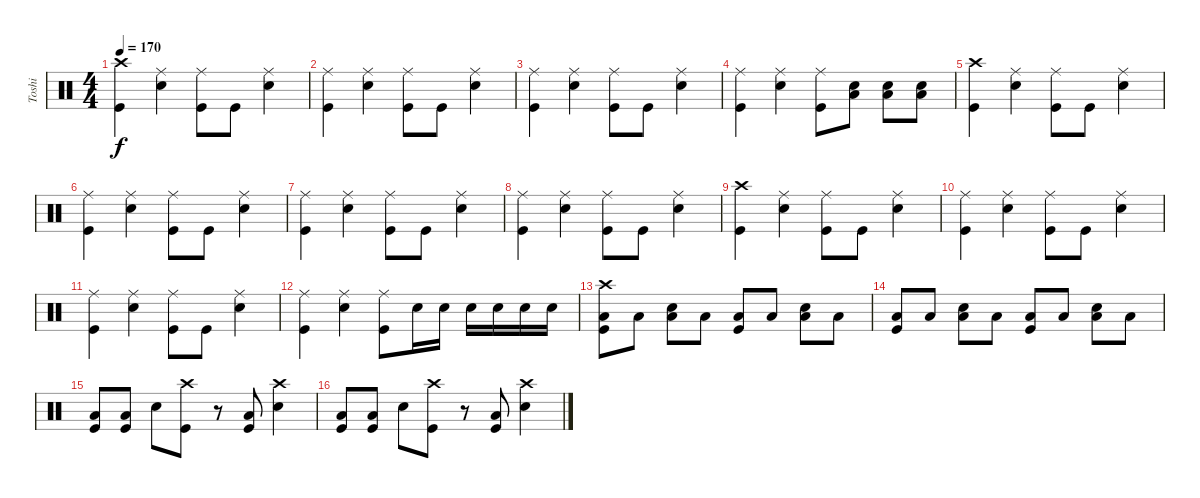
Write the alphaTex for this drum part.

\track ("Toshi" "Toshi") {instrument percussion}
\staff {score}
\articulation defaults
\ts (4 4)
\tempo 170
\clef neutral
\ks c
("Crash high (hit)" "Kick (hit)").4{dy f} ("Ride (middle)" "Snare (hit) 2").4 ("Ride (middle)" "Kick (hit)").8 "Kick (hit)".8 ("Ride (middle)" "Snare (hit) 2").4 |
("Ride (middle)" "Kick (hit)").4 ("Ride (middle)" "Snare (hit) 2").4 ("Ride (middle)" "Kick (hit)").8 "Kick (hit)".8 ("Ride (middle)" "Snare (hit) 2").4 |
("Ride (middle)" "Kick (hit)").4 ("Ride (middle)" "Snare (hit) 2").4 ("Ride (middle)" "Kick (hit)").8 "Kick (hit)".8 ("Ride (middle)" "Snare (hit) 2").4 |
("Ride (middle)" "Kick (hit)").4 ("Ride (middle)" "Snare (hit) 2").4 ("Ride (middle)" "Kick (hit)").8 ("Snare (hit) 2" "Low Tom (hit)").8 ("Snare (hit) 2" "Low Tom (hit)").8 ("Snare (hit) 2" "Low Tom (hit)").8 |
("Crash high (hit)" "Kick (hit)").4 ("Ride (middle)" "Snare (hit) 2").4 ("Ride (middle)" "Kick (hit)").8 "Kick (hit)".8 ("Ride (middle)" "Snare (hit) 2").4 |
("Ride (middle)" "Kick (hit)").4 ("Ride (middle)" "Snare (hit) 2").4 ("Ride (middle)" "Kick (hit)").8 "Kick (hit)".8 ("Ride (middle)" "Snare (hit) 2").4 |
("Ride (middle)" "Kick (hit)").4 ("Ride (middle)" "Snare (hit) 2").4 ("Ride (middle)" "Kick (hit)").8 "Kick (hit)".8 ("Ride (middle)" "Snare (hit) 2").4 |
("Ride (middle)" "Kick (hit)").4 ("Ride (middle)" "Snare (hit) 2").4 ("Ride (middle)" "Kick (hit)").8 "Kick (hit)".8 ("Ride (middle)" "Snare (hit) 2").4 |
("Crash high (hit)" "Kick (hit)").4 ("Ride (middle)" "Snare (hit) 2").4 ("Ride (middle)" "Kick (hit)").8 "Kick (hit)".8 ("Ride (middle)" "Snare (hit) 2").4 |
("Ride (middle)" "Kick (hit)").4 ("Ride (middle)" "Snare (hit) 2").4 ("Ride (middle)" "Kick (hit)").8 "Kick (hit)".8 ("Ride (middle)" "Snare (hit) 2").4 |
("Ride (middle)" "Kick (hit)").4 ("Ride (middle)" "Snare (hit) 2").4 ("Ride (middle)" "Kick (hit)").8 "Kick (hit)".8 ("Ride (middle)" "Snare (hit) 2").4 |
("Ride (middle)" "Kick (hit)").4 ("Ride (middle)" "Snare (hit) 2").4 ("Ride (middle)" "Kick (hit)").8 "Snare (hit) 2".16 "Snare (hit) 2".16 "Snare (hit) 2".16 "Snare (hit) 2".16 "Snare (hit) 2".16 "Snare (hit) 2".16 |
("Crash high (hit)" "Kick (hit)" "Low Floor Tom (hit)").8 "Low Floor Tom (hit)".8 ("Snare (hit) 2" "Low Floor Tom (hit)").8 "Low Floor Tom (hit)".8 ("Kick (hit)" "Low Floor Tom (hit)").8 "Low Floor Tom (hit)".8 ("Snare (hit) 2" "Low Floor Tom (hit)").8 "Low Floor Tom (hit)".8 |
("Kick (hit)" "Low Floor Tom (hit)").8 "Low Floor Tom (hit)".8 ("Snare (hit) 2" "Low Floor Tom (hit)").8 "Low Floor Tom (hit)".8 ("Kick (hit)" "Low Floor Tom (hit)").8 "Low Floor Tom (hit)".8 ("Snare (hit) 2" "Low Floor Tom (hit)").8 "Low Floor Tom (hit)".8 |
("Kick (hit)" "Low Floor Tom (hit)").8 ("Kick (hit)" "Low Floor Tom (hit)").8 "Snare (hit) 2".8 ("Crash high (hit)" "Kick (hit)").8 r.8 ("Kick (hit)" "Low Floor Tom (hit)").8 ("Crash high (hit)" "Snare (hit) 2").4 |
("Kick (hit)" "Low Floor Tom (hit)").8 ("Kick (hit)" "Low Floor Tom (hit)").8 "Snare (hit) 2".8 ("Crash high (hit)" "Kick (hit)").8 r.8 ("Kick (hit)" "Low Floor Tom (hit)").8 ("Crash high (hit)" "Snare (hit) 2").4
